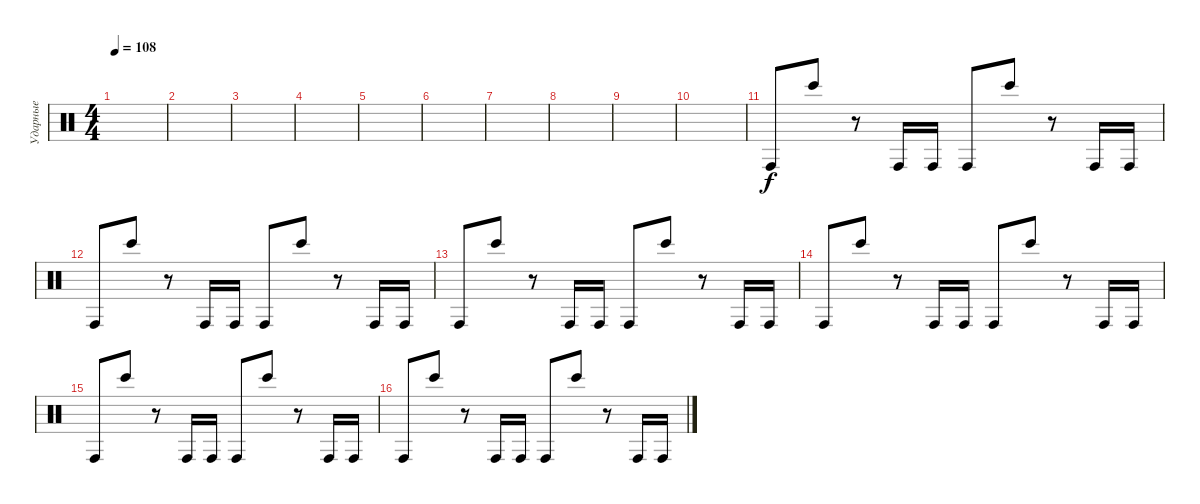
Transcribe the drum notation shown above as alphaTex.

\track ("Ударные" "Ударные") {instrument percussion}
\staff {score}
\articulation defaults
\ts (4 4)
\tempo 108
\clef neutral
\ks c
|
|
|
|
|
|
|
|
|
|
"Conga high (hit)".8 "Bongo High (hit)".8 r.8 "Conga high (hit)".16 "Conga high (hit)".16 "Conga high (hit)".8 "Bongo High (hit)".8 r.8 "Conga high (hit)".16 "Conga high (hit)".16 |
"Conga high (hit)".8 "Bongo High (hit)".8 r.8 "Conga high (hit)".16 "Conga high (hit)".16 "Conga high (hit)".8 "Bongo High (hit)".8 r.8 "Conga high (hit)".16 "Conga high (hit)".16 |
"Conga high (hit)".8 "Bongo High (hit)".8 r.8 "Conga high (hit)".16 "Conga high (hit)".16 "Conga high (hit)".8 "Bongo High (hit)".8 r.8 "Conga high (hit)".16 "Conga high (hit)".16 |
"Conga high (hit)".8 "Bongo High (hit)".8 r.8 "Conga high (hit)".16 "Conga high (hit)".16 "Conga high (hit)".8 "Bongo High (hit)".8 r.8 "Conga high (hit)".16 "Conga high (hit)".16 |
"Conga high (hit)".8 "Bongo High (hit)".8 r.8 "Conga high (hit)".16 "Conga high (hit)".16 "Conga high (hit)".8 "Bongo High (hit)".8 r.8 "Conga high (hit)".16 "Conga high (hit)".16 |
"Conga high (hit)".8 "Bongo High (hit)".8 r.8 "Conga high (hit)".16 "Conga high (hit)".16 "Conga high (hit)".8 "Bongo High (hit)".8 r.8 "Conga high (hit)".16 "Conga high (hit)".16
